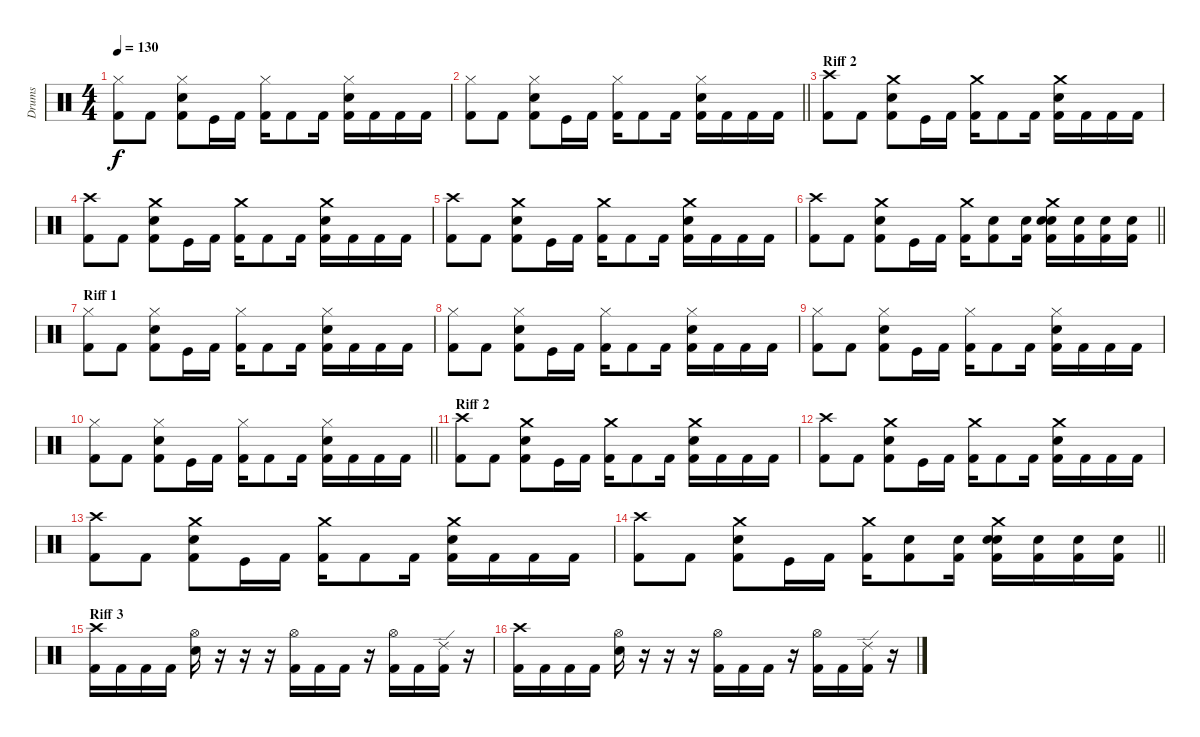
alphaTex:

\track ("Drums" "Drums") {instrument percussion}
\staff {score}
\articulation defaults
\ts (4 4)
\tempo 130
\clef neutral
\ks c
("Hi-Hat (closed)" "Kick (hit) 2").8{dy f} "Kick (hit) 2".8 ("Hi-Hat (closed)" "Electric Snare (hit)" "Kick (hit) 2").8 "Kick (hit)".16 "Kick (hit) 2".16 ("Hi-Hat (closed)" "Kick (hit) 2").16 "Kick (hit) 2".8 "Kick (hit) 2".16 ("Hi-Hat (closed)" "Electric Snare (hit)" "Kick (hit) 2").16 "Kick (hit) 2".16 "Kick (hit) 2".16 "Kick (hit) 2".16 |
\barLineRight lightlight
("Hi-Hat (closed)" "Kick (hit) 2").8 "Kick (hit) 2".8 ("Hi-Hat (closed)" "Electric Snare (hit)" "Kick (hit) 2").8 "Kick (hit)".16 "Kick (hit) 2".16 ("Hi-Hat (closed)" "Kick (hit) 2").16 "Kick (hit) 2".8 "Kick (hit) 2".16 ("Hi-Hat (closed)" "Electric Snare (hit)" "Kick (hit) 2").16 "Kick (hit) 2".16 "Kick (hit) 2".16 "Kick (hit) 2".16 |
\section ("" "Riff 2")
("Crash high (hit)" "Kick (hit) 2").8 "Kick (hit) 2".8 ("Crash medium (hit)" "Electric Snare (hit)" "Kick (hit) 2").8 "Kick (hit)".16 "Kick (hit) 2".16 ("Crash medium (hit)" "Kick (hit) 2").16 "Kick (hit) 2".8 "Kick (hit) 2".16 ("Crash medium (hit)" "Electric Snare (hit)" "Kick (hit) 2").16 "Kick (hit) 2".16 "Kick (hit) 2".16 "Kick (hit) 2".16 |
("Crash high (hit)" "Kick (hit) 2").8 "Kick (hit) 2".8 ("Crash medium (hit)" "Electric Snare (hit)" "Kick (hit) 2").8 "Kick (hit)".16 "Kick (hit) 2".16 ("Crash medium (hit)" "Kick (hit) 2").16 "Kick (hit) 2".8 "Kick (hit) 2".16 ("Crash medium (hit)" "Electric Snare (hit)" "Kick (hit) 2").16 "Kick (hit) 2".16 "Kick (hit) 2".16 "Kick (hit) 2".16 |
("Crash high (hit)" "Kick (hit) 2").8 "Kick (hit) 2".8 ("Crash medium (hit)" "Electric Snare (hit)" "Kick (hit) 2").8 "Kick (hit)".16 "Kick (hit) 2".16 ("Crash medium (hit)" "Kick (hit) 2").16 "Kick (hit) 2".8 "Kick (hit) 2".16 ("Crash medium (hit)" "Electric Snare (hit)" "Kick (hit) 2").16 "Kick (hit) 2".16 "Kick (hit) 2".16 "Kick (hit) 2".16 |
\barLineRight lightlight
("Crash high (hit)" "Kick (hit) 2").8 "Kick (hit) 2".8 ("Crash medium (hit)" "Electric Snare (hit)" "Kick (hit) 2").8 "Kick (hit)".16 "Kick (hit) 2".16 ("Crash medium (hit)" "Kick (hit) 2").16 ("Electric Snare (hit)" "Kick (hit) 2").8 ("Electric Snare (hit)" "Kick (hit) 2").16 ("Crash medium (hit)" "Electric Snare (hit)" "Electric Snare (hit)" "Kick (hit) 2").16 ("Electric Snare (hit)" "Kick (hit) 2").16 ("Electric Snare (hit)" "Kick (hit) 2").16 ("Electric Snare (hit)" "Kick (hit) 2").16 |
\section ("" "Riff 1")
("Hi-Hat (closed)" "Kick (hit) 2").8 "Kick (hit) 2".8 ("Hi-Hat (closed)" "Electric Snare (hit)" "Kick (hit) 2").8 "Kick (hit)".16 "Kick (hit) 2".16 ("Hi-Hat (closed)" "Kick (hit) 2").16 "Kick (hit) 2".8 "Kick (hit) 2".16 ("Hi-Hat (closed)" "Electric Snare (hit)" "Kick (hit) 2").16 "Kick (hit) 2".16 "Kick (hit) 2".16 "Kick (hit) 2".16 |
("Hi-Hat (closed)" "Kick (hit) 2").8 "Kick (hit) 2".8 ("Hi-Hat (closed)" "Electric Snare (hit)" "Kick (hit) 2").8 "Kick (hit)".16 "Kick (hit) 2".16 ("Hi-Hat (closed)" "Kick (hit) 2").16 "Kick (hit) 2".8 "Kick (hit) 2".16 ("Hi-Hat (closed)" "Electric Snare (hit)" "Kick (hit) 2").16 "Kick (hit) 2".16 "Kick (hit) 2".16 "Kick (hit) 2".16 |
("Hi-Hat (closed)" "Kick (hit) 2").8 "Kick (hit) 2".8 ("Hi-Hat (closed)" "Electric Snare (hit)" "Kick (hit) 2").8 "Kick (hit)".16 "Kick (hit) 2".16 ("Hi-Hat (closed)" "Kick (hit) 2").16 "Kick (hit) 2".8 "Kick (hit) 2".16 ("Hi-Hat (closed)" "Electric Snare (hit)" "Kick (hit) 2").16 "Kick (hit) 2".16 "Kick (hit) 2".16 "Kick (hit) 2".16 |
\barLineRight lightlight
("Hi-Hat (closed)" "Kick (hit) 2").8 "Kick (hit) 2".8 ("Hi-Hat (closed)" "Electric Snare (hit)" "Kick (hit) 2").8 "Kick (hit)".16 "Kick (hit) 2".16 ("Hi-Hat (closed)" "Kick (hit) 2").16 "Kick (hit) 2".8 "Kick (hit) 2".16 ("Hi-Hat (closed)" "Electric Snare (hit)" "Kick (hit) 2").16 "Kick (hit) 2".16 "Kick (hit) 2".16 "Kick (hit) 2".16 |
\section ("" "Riff 2")
("Crash high (hit)" "Kick (hit) 2").8 "Kick (hit) 2".8 ("Crash medium (hit)" "Electric Snare (hit)" "Kick (hit) 2").8 "Kick (hit)".16 "Kick (hit) 2".16 ("Crash medium (hit)" "Kick (hit) 2").16 "Kick (hit) 2".8 "Kick (hit) 2".16 ("Crash medium (hit)" "Electric Snare (hit)" "Kick (hit) 2").16 "Kick (hit) 2".16 "Kick (hit) 2".16 "Kick (hit) 2".16 |
("Crash high (hit)" "Kick (hit) 2").8 "Kick (hit) 2".8 ("Crash medium (hit)" "Electric Snare (hit)" "Kick (hit) 2").8 "Kick (hit)".16 "Kick (hit) 2".16 ("Crash medium (hit)" "Kick (hit) 2").16 "Kick (hit) 2".8 "Kick (hit) 2".16 ("Crash medium (hit)" "Electric Snare (hit)" "Kick (hit) 2").16 "Kick (hit) 2".16 "Kick (hit) 2".16 "Kick (hit) 2".16 |
("Crash high (hit)" "Kick (hit) 2").8 "Kick (hit) 2".8 ("Crash medium (hit)" "Electric Snare (hit)" "Kick (hit) 2").8 "Kick (hit)".16 "Kick (hit) 2".16 ("Crash medium (hit)" "Kick (hit) 2").16 "Kick (hit) 2".8 "Kick (hit) 2".16 ("Crash medium (hit)" "Electric Snare (hit)" "Kick (hit) 2").16 "Kick (hit) 2".16 "Kick (hit) 2".16 "Kick (hit) 2".16 |
\barLineRight lightlight
("Crash high (hit)" "Kick (hit) 2").8 "Kick (hit) 2".8 ("Crash medium (hit)" "Electric Snare (hit)" "Kick (hit) 2").8 "Kick (hit)".16 "Kick (hit) 2".16 ("Crash medium (hit)" "Kick (hit) 2").16 ("Electric Snare (hit)" "Kick (hit) 2").8 ("Electric Snare (hit)" "Kick (hit) 2").16 ("Crash medium (hit)" "Electric Snare (hit)" "Electric Snare (hit)" "Kick (hit) 2").16 ("Electric Snare (hit)" "Kick (hit) 2").16 ("Electric Snare (hit)" "Kick (hit) 2").16 ("Electric Snare (hit)" "Kick (hit) 2").16 |
\section ("" "Riff 3")
("Crash high (hit)" "Kick (hit) 2").16 "Kick (hit) 2".16 "Kick (hit) 2".16 "Kick (hit) 2".16 ("Hi-Hat (open)" "Electric Snare (hit)").16 r.16 r.16 r.16 ("Hi-Hat (open)" "Kick (hit) 2").16 "Kick (hit) 2".16 "Kick (hit) 2".16 r.16 ("Hi-Hat (open)" "Kick (hit) 2").16 "Kick (hit) 2".16 ("Ride (edge) 2" "Kick (hit) 2").16 r.16 |
("Crash high (hit)" "Kick (hit) 2").16 "Kick (hit) 2".16 "Kick (hit) 2".16 "Kick (hit) 2".16 ("Hi-Hat (open)" "Electric Snare (hit)").16 r.16 r.16 r.16 ("Hi-Hat (open)" "Kick (hit) 2").16 "Kick (hit) 2".16 "Kick (hit) 2".16 r.16 ("Hi-Hat (open)" "Kick (hit) 2").16 "Kick (hit) 2".16 ("Ride (edge) 2" "Kick (hit) 2").16 r.16
